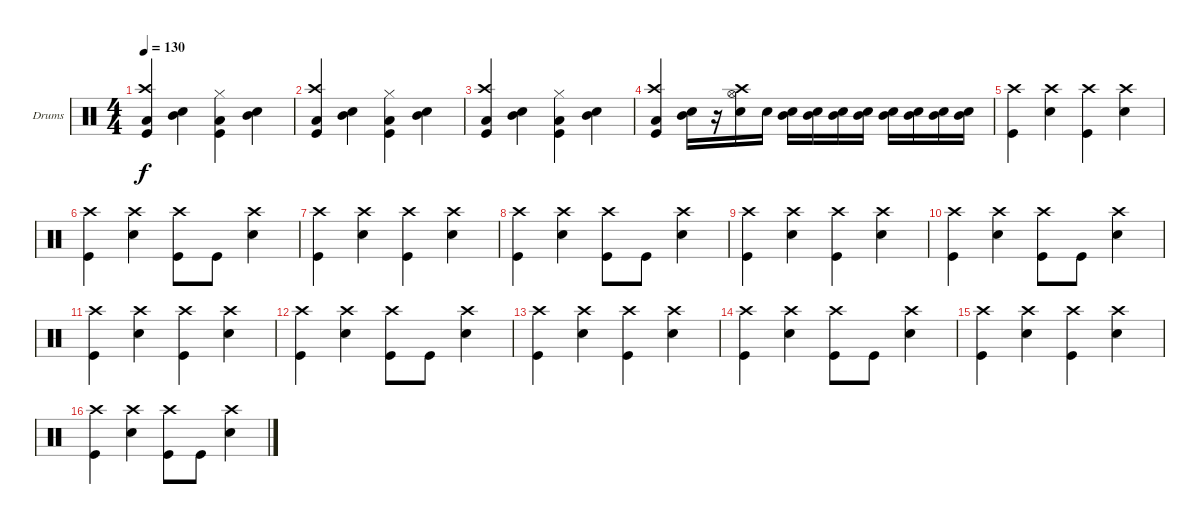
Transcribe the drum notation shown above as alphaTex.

\bracketExtendMode groupsimilarinstruments
\firstSystemTrackNameOrientation horizontal
\otherSystemsTrackNameOrientation horizontal
\track ("Drumkit" "Drums") {instrument percussion}
\staff {score}
\articulation defaults
\ts (4 4)
\tempo 130
\clef neutral
\ks c
("Kick (hit)" "Crash high (hit)" "Low Tom (hit)").4{dy f} ("Snare (hit) 2" "Mid Tom (hit)").4 ("Kick (hit)" "Low Tom (hit)" "Hi-Hat (closed)").4 ("Snare (hit) 2" "Mid Tom (hit)").4 |
("Kick (hit)" "Crash high (hit)" "Low Tom (hit)").4 ("Snare (hit) 2" "Mid Tom (hit)").4 ("Kick (hit)" "Low Tom (hit)" "Hi-Hat (closed)").4 ("Snare (hit) 2" "Mid Tom (hit)").4 |
("Kick (hit)" "Crash high (hit)" "Low Tom (hit)").4 ("Snare (hit) 2" "Mid Tom (hit)").4 ("Kick (hit)" "Low Tom (hit)" "Hi-Hat (closed)").4 ("Snare (hit) 2" "Mid Tom (hit)").4 |
("Kick (hit)" "Crash high (hit)" "Low Tom (hit)").4 ("Snare (hit) 2" "Mid Tom (hit)").16 r.16 ("Snare (hit) 2" "Crash high (hit)" "Hi-Hat (open)").16 "Snare (hit) 2".16 ("Snare (hit) 2" "Mid Tom (hit)").16 ("Snare (hit) 2" "Mid Tom (hit)").16 ("Snare (hit) 2" "Mid Tom (hit)").16 ("Snare (hit) 2" "Mid Tom (hit)").16 ("Snare (hit) 2" "Mid Tom (hit)").16 ("Snare (hit) 2" "Mid Tom (hit)").16 ("Snare (hit) 2" "Mid Tom (hit)").16 ("Snare (hit) 2" "Mid Tom (hit)").16 |
("Kick (hit)" "Crash high (hit)").4 ("Snare (hit) 2" "Crash high (hit)").4 ("Kick (hit)" "Crash high (hit)").4 ("Snare (hit) 2" "Crash high (hit)").4 |
("Kick (hit)" "Crash high (hit)").4 ("Snare (hit) 2" "Crash high (hit)").4 ("Kick (hit)" "Crash high (hit)").8 "Kick (hit)".8 ("Snare (hit) 2" "Crash high (hit)").4 |
("Kick (hit)" "Crash high (hit)").4 ("Snare (hit) 2" "Crash high (hit)").4 ("Kick (hit)" "Crash high (hit)").4 ("Snare (hit) 2" "Crash high (hit)").4 |
("Kick (hit)" "Crash high (hit)").4 ("Snare (hit) 2" "Crash high (hit)").4 ("Kick (hit)" "Crash high (hit)").8 "Kick (hit)".8 ("Snare (hit) 2" "Crash high (hit)").4 |
("Kick (hit)" "Crash high (hit)").4 ("Snare (hit) 2" "Crash high (hit)").4 ("Kick (hit)" "Crash high (hit)").4 ("Snare (hit) 2" "Crash high (hit)").4 |
("Kick (hit)" "Crash high (hit)").4 ("Snare (hit) 2" "Crash high (hit)").4 ("Kick (hit)" "Crash high (hit)").8 "Kick (hit)".8 ("Snare (hit) 2" "Crash high (hit)").4 |
("Kick (hit)" "Crash high (hit)").4 ("Snare (hit) 2" "Crash high (hit)").4 ("Kick (hit)" "Crash high (hit)").4 ("Snare (hit) 2" "Crash high (hit)").4 |
("Kick (hit)" "Crash high (hit)").4 ("Snare (hit) 2" "Crash high (hit)").4 ("Kick (hit)" "Crash high (hit)").8 "Kick (hit)".8 ("Snare (hit) 2" "Crash high (hit)").4 |
("Kick (hit)" "Crash high (hit)").4 ("Snare (hit) 2" "Crash high (hit)").4 ("Kick (hit)" "Crash high (hit)").4 ("Snare (hit) 2" "Crash high (hit)").4 |
("Kick (hit)" "Crash high (hit)").4 ("Snare (hit) 2" "Crash high (hit)").4 ("Kick (hit)" "Crash high (hit)").8 "Kick (hit)".8 ("Snare (hit) 2" "Crash high (hit)").4 |
("Kick (hit)" "Crash high (hit)").4 ("Snare (hit) 2" "Crash high (hit)").4 ("Kick (hit)" "Crash high (hit)").4 ("Snare (hit) 2" "Crash high (hit)").4 |
("Kick (hit)" "Crash high (hit)").4 ("Snare (hit) 2" "Crash high (hit)").4 ("Kick (hit)" "Crash high (hit)").8 "Kick (hit)".8 ("Snare (hit) 2" "Crash high (hit)").4
